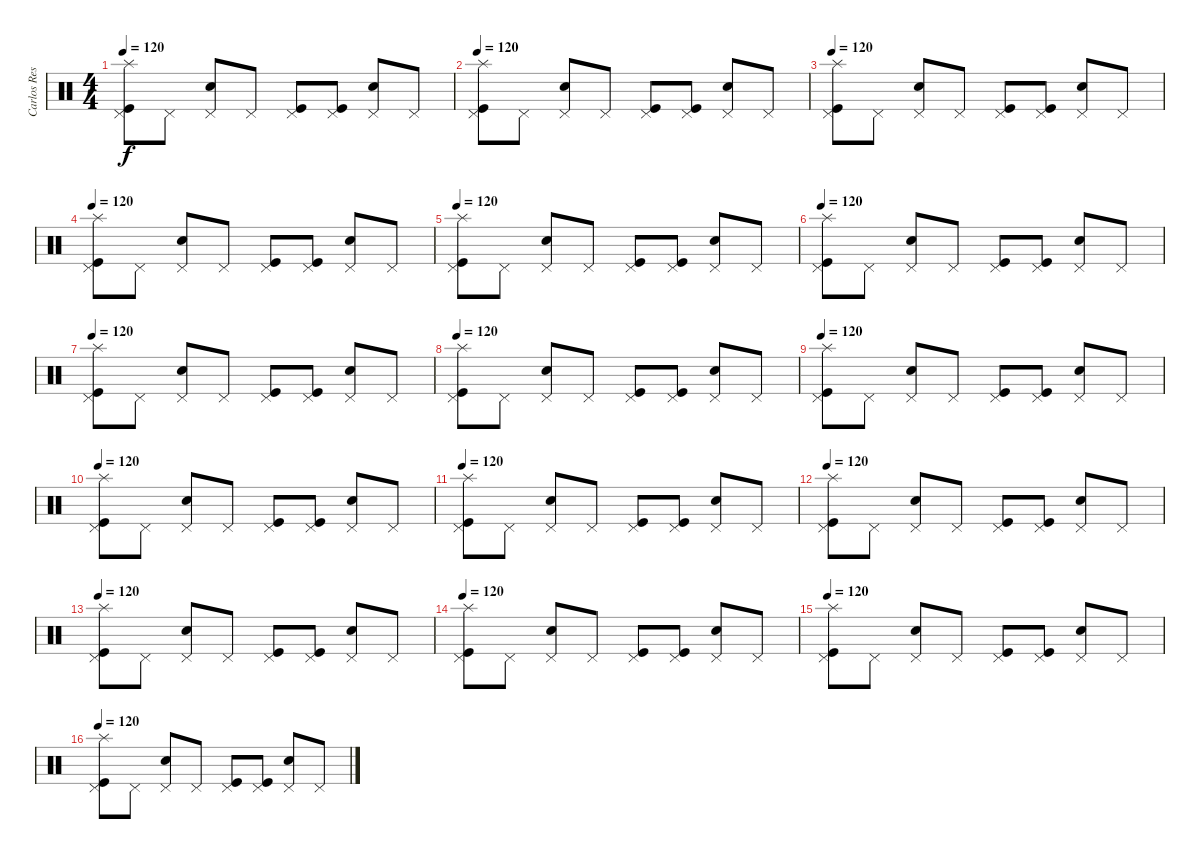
\track ("Carlos Restrepo" "Carlos Res") {instrument percussion}
\staff {score}
\articulation defaults
\ts (4 4)
\tempo 120
\clef neutral
\ks c
("Pedal Hi-Hat (hit)" "Kick (hit)" "Splash (hit)").8{dy f} "Pedal Hi-Hat (hit)".8 ("Pedal Hi-Hat (hit)" "Snare (hit) 2").8 "Pedal Hi-Hat (hit)".8 ("Pedal Hi-Hat (hit)" "Kick (hit)").8 ("Pedal Hi-Hat (hit)" "Kick (hit)").8 ("Pedal Hi-Hat (hit)" "Snare (hit) 2").8 "Pedal Hi-Hat (hit)".8 |
\tempo 120
("Pedal Hi-Hat (hit)" "Kick (hit)" "Splash (hit)").8 "Pedal Hi-Hat (hit)".8 ("Pedal Hi-Hat (hit)" "Snare (hit) 2").8 "Pedal Hi-Hat (hit)".8 ("Pedal Hi-Hat (hit)" "Kick (hit)").8 ("Pedal Hi-Hat (hit)" "Kick (hit)").8 ("Pedal Hi-Hat (hit)" "Snare (hit) 2").8 "Pedal Hi-Hat (hit)".8 |
\tempo 120
("Pedal Hi-Hat (hit)" "Kick (hit)" "Splash (hit)").8 "Pedal Hi-Hat (hit)".8 ("Pedal Hi-Hat (hit)" "Snare (hit) 2").8 "Pedal Hi-Hat (hit)".8 ("Pedal Hi-Hat (hit)" "Kick (hit)").8 ("Pedal Hi-Hat (hit)" "Kick (hit)").8 ("Pedal Hi-Hat (hit)" "Snare (hit) 2").8 "Pedal Hi-Hat (hit)".8 |
\tempo 120
("Pedal Hi-Hat (hit)" "Kick (hit)" "Splash (hit)").8 "Pedal Hi-Hat (hit)".8 ("Pedal Hi-Hat (hit)" "Snare (hit) 2").8 "Pedal Hi-Hat (hit)".8 ("Pedal Hi-Hat (hit)" "Kick (hit)").8 ("Pedal Hi-Hat (hit)" "Kick (hit)").8 ("Pedal Hi-Hat (hit)" "Snare (hit) 2").8 "Pedal Hi-Hat (hit)".8 |
\tempo 120
("Pedal Hi-Hat (hit)" "Kick (hit)" "Splash (hit)").8 "Pedal Hi-Hat (hit)".8 ("Pedal Hi-Hat (hit)" "Snare (hit) 2").8 "Pedal Hi-Hat (hit)".8 ("Pedal Hi-Hat (hit)" "Kick (hit)").8 ("Pedal Hi-Hat (hit)" "Kick (hit)").8 ("Pedal Hi-Hat (hit)" "Snare (hit) 2").8 "Pedal Hi-Hat (hit)".8 |
\tempo 120
("Pedal Hi-Hat (hit)" "Kick (hit)" "Splash (hit)").8 "Pedal Hi-Hat (hit)".8 ("Pedal Hi-Hat (hit)" "Snare (hit) 2").8 "Pedal Hi-Hat (hit)".8 ("Pedal Hi-Hat (hit)" "Kick (hit)").8 ("Pedal Hi-Hat (hit)" "Kick (hit)").8 ("Pedal Hi-Hat (hit)" "Snare (hit) 2").8 "Pedal Hi-Hat (hit)".8 |
\tempo 120
("Pedal Hi-Hat (hit)" "Kick (hit)" "Splash (hit)").8 "Pedal Hi-Hat (hit)".8 ("Pedal Hi-Hat (hit)" "Snare (hit) 2").8 "Pedal Hi-Hat (hit)".8 ("Pedal Hi-Hat (hit)" "Kick (hit)").8 ("Pedal Hi-Hat (hit)" "Kick (hit)").8 ("Pedal Hi-Hat (hit)" "Snare (hit) 2").8 "Pedal Hi-Hat (hit)".8 |
\tempo 120
("Pedal Hi-Hat (hit)" "Kick (hit)" "Splash (hit)").8 "Pedal Hi-Hat (hit)".8 ("Pedal Hi-Hat (hit)" "Snare (hit) 2").8 "Pedal Hi-Hat (hit)".8 ("Pedal Hi-Hat (hit)" "Kick (hit)").8 ("Pedal Hi-Hat (hit)" "Kick (hit)").8 ("Pedal Hi-Hat (hit)" "Snare (hit) 2").8 "Pedal Hi-Hat (hit)".8 |
\tempo 120
("Pedal Hi-Hat (hit)" "Kick (hit)" "Splash (hit)").8 "Pedal Hi-Hat (hit)".8 ("Pedal Hi-Hat (hit)" "Snare (hit) 2").8 "Pedal Hi-Hat (hit)".8 ("Pedal Hi-Hat (hit)" "Kick (hit)").8 ("Pedal Hi-Hat (hit)" "Kick (hit)").8 ("Pedal Hi-Hat (hit)" "Snare (hit) 2").8 "Pedal Hi-Hat (hit)".8 |
\tempo 120
("Pedal Hi-Hat (hit)" "Kick (hit)" "Splash (hit)").8 "Pedal Hi-Hat (hit)".8 ("Pedal Hi-Hat (hit)" "Snare (hit) 2").8 "Pedal Hi-Hat (hit)".8 ("Pedal Hi-Hat (hit)" "Kick (hit)").8 ("Pedal Hi-Hat (hit)" "Kick (hit)").8 ("Pedal Hi-Hat (hit)" "Snare (hit) 2").8 "Pedal Hi-Hat (hit)".8 |
\tempo 120
("Pedal Hi-Hat (hit)" "Kick (hit)" "Splash (hit)").8 "Pedal Hi-Hat (hit)".8 ("Pedal Hi-Hat (hit)" "Snare (hit) 2").8 "Pedal Hi-Hat (hit)".8 ("Pedal Hi-Hat (hit)" "Kick (hit)").8 ("Pedal Hi-Hat (hit)" "Kick (hit)").8 ("Pedal Hi-Hat (hit)" "Snare (hit) 2").8 "Pedal Hi-Hat (hit)".8 |
\tempo 120
("Pedal Hi-Hat (hit)" "Kick (hit)" "Splash (hit)").8 "Pedal Hi-Hat (hit)".8 ("Pedal Hi-Hat (hit)" "Snare (hit) 2").8 "Pedal Hi-Hat (hit)".8 ("Pedal Hi-Hat (hit)" "Kick (hit)").8 ("Pedal Hi-Hat (hit)" "Kick (hit)").8 ("Pedal Hi-Hat (hit)" "Snare (hit) 2").8 "Pedal Hi-Hat (hit)".8 |
\tempo 120
("Pedal Hi-Hat (hit)" "Kick (hit)" "Splash (hit)").8 "Pedal Hi-Hat (hit)".8 ("Pedal Hi-Hat (hit)" "Snare (hit) 2").8 "Pedal Hi-Hat (hit)".8 ("Pedal Hi-Hat (hit)" "Kick (hit)").8 ("Pedal Hi-Hat (hit)" "Kick (hit)").8 ("Pedal Hi-Hat (hit)" "Snare (hit) 2").8 "Pedal Hi-Hat (hit)".8 |
\tempo 120
("Pedal Hi-Hat (hit)" "Kick (hit)" "Splash (hit)").8 "Pedal Hi-Hat (hit)".8 ("Pedal Hi-Hat (hit)" "Snare (hit) 2").8 "Pedal Hi-Hat (hit)".8 ("Pedal Hi-Hat (hit)" "Kick (hit)").8 ("Pedal Hi-Hat (hit)" "Kick (hit)").8 ("Pedal Hi-Hat (hit)" "Snare (hit) 2").8 "Pedal Hi-Hat (hit)".8 |
\tempo 120
("Pedal Hi-Hat (hit)" "Kick (hit)" "Splash (hit)").8 "Pedal Hi-Hat (hit)".8 ("Pedal Hi-Hat (hit)" "Snare (hit) 2").8 "Pedal Hi-Hat (hit)".8 ("Pedal Hi-Hat (hit)" "Kick (hit)").8 ("Pedal Hi-Hat (hit)" "Kick (hit)").8 ("Pedal Hi-Hat (hit)" "Snare (hit) 2").8 "Pedal Hi-Hat (hit)".8 |
\tempo 120
("Pedal Hi-Hat (hit)" "Kick (hit)" "Splash (hit)").8 "Pedal Hi-Hat (hit)".8 ("Pedal Hi-Hat (hit)" "Snare (hit) 2").8 "Pedal Hi-Hat (hit)".8 ("Pedal Hi-Hat (hit)" "Kick (hit)").8 ("Pedal Hi-Hat (hit)" "Kick (hit)").8 ("Pedal Hi-Hat (hit)" "Snare (hit) 2").8 "Pedal Hi-Hat (hit)".8
